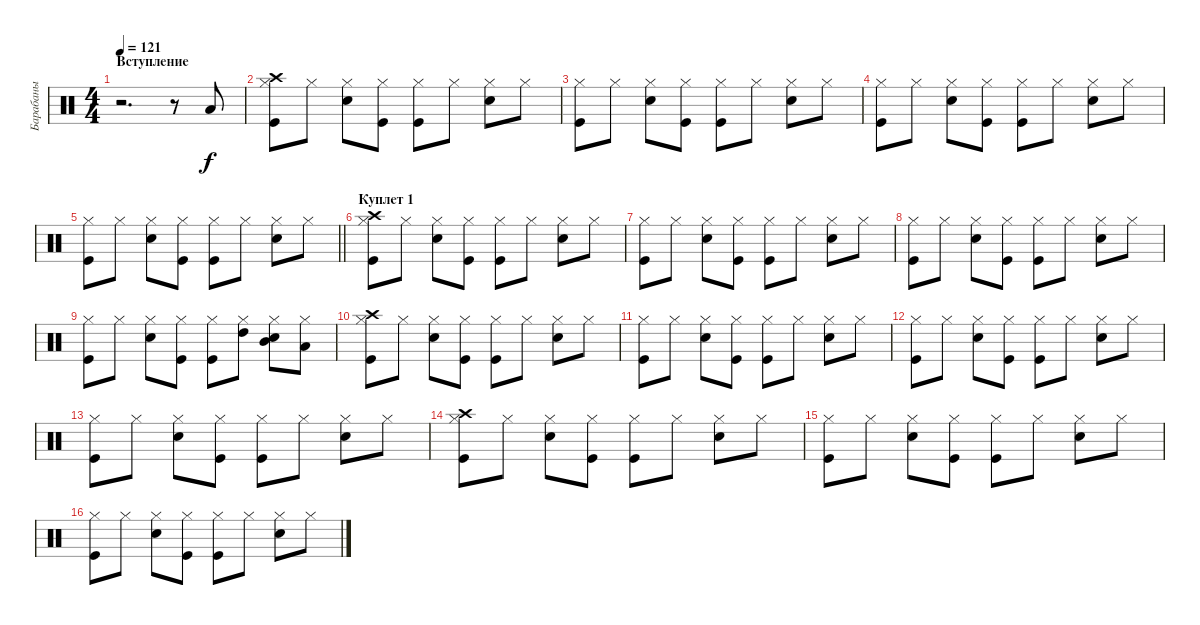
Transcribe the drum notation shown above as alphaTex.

\track ("Барабаны" "Барабаны") {instrument percussion}
\staff {score}
\articulation defaults
\ts (4 4)
\section ("" "Вступление")
\tempo 121
\clef neutral
\ks c
r.2{d dy f} r.8 "Low Tom (hit)".8 |
("Kick (hit)" "Hi-Hat (closed)" "Crash high (hit)").8 "Hi-Hat (closed)".8 ("Snare (hit) 2" "Hi-Hat (closed)").8 ("Kick (hit)" "Hi-Hat (closed)").8 ("Kick (hit)" "Hi-Hat (closed)").8 "Hi-Hat (closed)".8 ("Snare (hit) 2" "Hi-Hat (closed)").8 "Hi-Hat (closed)".8 |
("Kick (hit)" "Hi-Hat (closed)").8 "Hi-Hat (closed)".8 ("Snare (hit) 2" "Hi-Hat (closed)").8 ("Kick (hit)" "Hi-Hat (closed)").8 ("Kick (hit)" "Hi-Hat (closed)").8 "Hi-Hat (closed)".8 ("Snare (hit) 2" "Hi-Hat (closed)").8 "Hi-Hat (closed)".8 |
("Kick (hit)" "Hi-Hat (closed)").8 "Hi-Hat (closed)".8 ("Snare (hit) 2" "Hi-Hat (closed)").8 ("Kick (hit)" "Hi-Hat (closed)").8 ("Kick (hit)" "Hi-Hat (closed)").8 "Hi-Hat (closed)".8 ("Snare (hit) 2" "Hi-Hat (closed)").8 "Hi-Hat (closed)".8 |
\barLineRight lightlight
("Kick (hit)" "Hi-Hat (closed)").8 "Hi-Hat (closed)".8 ("Snare (hit) 2" "Hi-Hat (closed)").8 ("Kick (hit)" "Hi-Hat (closed)").8 ("Kick (hit)" "Hi-Hat (closed)").8 "Hi-Hat (closed)".8 ("Snare (hit) 2" "Hi-Hat (closed)").8 "Hi-Hat (closed)".8 |
\section ("" "Куплет 1")
("Kick (hit)" "Hi-Hat (closed)" "Crash high (hit)").8 "Hi-Hat (closed)".8 ("Snare (hit) 2" "Hi-Hat (closed)").8 ("Kick (hit)" "Hi-Hat (closed)").8 ("Kick (hit)" "Hi-Hat (closed)").8 "Hi-Hat (closed)".8 ("Snare (hit) 2" "Hi-Hat (closed)").8 "Hi-Hat (closed)".8 |
("Kick (hit)" "Hi-Hat (closed)").8 "Hi-Hat (closed)".8 ("Snare (hit) 2" "Hi-Hat (closed)").8 ("Kick (hit)" "Hi-Hat (closed)").8 ("Kick (hit)" "Hi-Hat (closed)").8 "Hi-Hat (closed)".8 ("Snare (hit) 2" "Hi-Hat (closed)").8 "Hi-Hat (closed)".8 |
("Kick (hit)" "Hi-Hat (closed)").8 "Hi-Hat (closed)".8 ("Snare (hit) 2" "Hi-Hat (closed)").8 ("Kick (hit)" "Hi-Hat (closed)").8 ("Kick (hit)" "Hi-Hat (closed)").8 "Hi-Hat (closed)".8 ("Snare (hit) 2" "Hi-Hat (closed)").8 "Hi-Hat (closed)".8 |
("Kick (hit)" "Hi-Hat (closed)").8 "Hi-Hat (closed)".8 ("Snare (hit) 2" "Hi-Hat (closed)").8 ("Kick (hit)" "Hi-Hat (closed)").8 ("Kick (hit)" "Hi-Hat (closed)").8 ("Hi-Hat (closed)" "High Tom (hit)").8 ("Snare (hit) 2" "Hi-Hat (closed)" "Mid Tom (hit)").8 ("Hi-Hat (closed)" "Low Tom (hit)").8 |
("Kick (hit)" "Hi-Hat (closed)" "Crash high (hit)").8 "Hi-Hat (closed)".8 ("Snare (hit) 2" "Hi-Hat (closed)").8 ("Kick (hit)" "Hi-Hat (closed)").8 ("Kick (hit)" "Hi-Hat (closed)").8 "Hi-Hat (closed)".8 ("Snare (hit) 2" "Hi-Hat (closed)").8 "Hi-Hat (closed)".8 |
("Kick (hit)" "Hi-Hat (closed)").8 "Hi-Hat (closed)".8 ("Snare (hit) 2" "Hi-Hat (closed)").8 ("Kick (hit)" "Hi-Hat (closed)").8 ("Kick (hit)" "Hi-Hat (closed)").8 "Hi-Hat (closed)".8 ("Snare (hit) 2" "Hi-Hat (closed)").8 "Hi-Hat (closed)".8 |
("Kick (hit)" "Hi-Hat (closed)").8 "Hi-Hat (closed)".8 ("Snare (hit) 2" "Hi-Hat (closed)").8 ("Kick (hit)" "Hi-Hat (closed)").8 ("Kick (hit)" "Hi-Hat (closed)").8 "Hi-Hat (closed)".8 ("Snare (hit) 2" "Hi-Hat (closed)").8 "Hi-Hat (closed)".8 |
("Kick (hit)" "Hi-Hat (closed)").8 "Hi-Hat (closed)".8 ("Snare (hit) 2" "Hi-Hat (closed)").8 ("Kick (hit)" "Hi-Hat (closed)").8 ("Kick (hit)" "Hi-Hat (closed)").8 "Hi-Hat (closed)".8 ("Snare (hit) 2" "Hi-Hat (closed)").8 "Hi-Hat (closed)".8 |
("Kick (hit)" "Hi-Hat (closed)" "Crash high (hit)").8 "Hi-Hat (closed)".8 ("Snare (hit) 2" "Hi-Hat (closed)").8 ("Kick (hit)" "Hi-Hat (closed)").8 ("Kick (hit)" "Hi-Hat (closed)").8 "Hi-Hat (closed)".8 ("Snare (hit) 2" "Hi-Hat (closed)").8 "Hi-Hat (closed)".8 |
("Kick (hit)" "Hi-Hat (closed)").8 "Hi-Hat (closed)".8 ("Snare (hit) 2" "Hi-Hat (closed)").8 ("Kick (hit)" "Hi-Hat (closed)").8 ("Kick (hit)" "Hi-Hat (closed)").8 "Hi-Hat (closed)".8 ("Snare (hit) 2" "Hi-Hat (closed)").8 "Hi-Hat (closed)".8 |
("Kick (hit)" "Hi-Hat (closed)").8 "Hi-Hat (closed)".8 ("Snare (hit) 2" "Hi-Hat (closed)").8 ("Kick (hit)" "Hi-Hat (closed)").8 ("Kick (hit)" "Hi-Hat (closed)").8 "Hi-Hat (closed)".8 ("Snare (hit) 2" "Hi-Hat (closed)").8 "Hi-Hat (closed)".8
